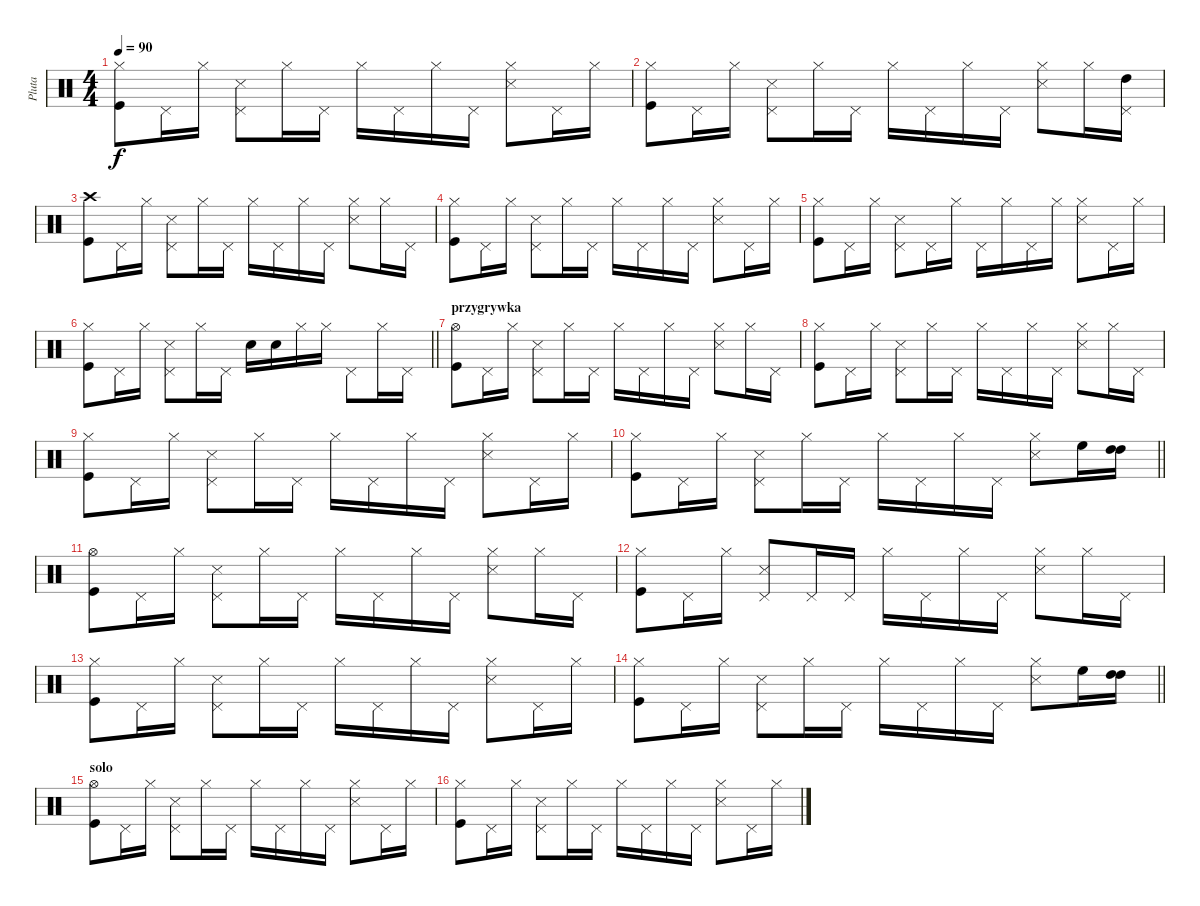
\track ("Pluta" "Pluta") {instrument percussion}
\staff {score}
\articulation defaults
\ts (4 4)
\tempo 90
\clef neutral
\ks c
("Hi-Hat (closed)" "Kick (hit)").8{dy f} "Pedal Hi-Hat (hit)".16 "Hi-Hat (closed)".16 ("Pedal Hi-Hat (hit)" "Snare (side stick) 3").8 "Hi-Hat (closed)".16 "Pedal Hi-Hat (hit)".16 "Hi-Hat (closed)".16 "Pedal Hi-Hat (hit)".16 "Hi-Hat (closed)".16 "Pedal Hi-Hat (hit)".16 ("Hi-Hat (closed)" "Snare (side stick) 3").8 "Pedal Hi-Hat (hit)".16 "Hi-Hat (closed)".16 |
("Hi-Hat (closed)" "Kick (hit)").8 "Pedal Hi-Hat (hit)".16 "Hi-Hat (closed)".16 ("Pedal Hi-Hat (hit)" "Snare (side stick) 3").8 "Hi-Hat (closed)".16 "Pedal Hi-Hat (hit)".16 "Hi-Hat (closed)".16 "Pedal Hi-Hat (hit)".16 "Hi-Hat (closed)".16 "Pedal Hi-Hat (hit)".16 ("Hi-Hat (closed)" "Snare (side stick) 3").8 "Hi-Hat (closed)".16 ("Pedal Hi-Hat (hit)" "High Tom (hit)").16 |
("Crash high (hit)" "Kick (hit)").8 "Pedal Hi-Hat (hit)".16 "Hi-Hat (closed)".16 ("Pedal Hi-Hat (hit)" "Snare (side stick) 3").8 "Hi-Hat (closed)".16 "Pedal Hi-Hat (hit)".16 "Hi-Hat (closed)".16 "Pedal Hi-Hat (hit)".16 "Hi-Hat (closed)".16 "Pedal Hi-Hat (hit)".16 ("Hi-Hat (closed)" "Snare (side stick) 3").8 "Hi-Hat (closed)".16 "Pedal Hi-Hat (hit)".16 |
("Hi-Hat (closed)" "Kick (hit)").8 "Pedal Hi-Hat (hit)".16 "Hi-Hat (closed)".16 ("Pedal Hi-Hat (hit)" "Snare (side stick) 3").8 "Hi-Hat (closed)".16 "Pedal Hi-Hat (hit)".16 "Hi-Hat (closed)".16 "Pedal Hi-Hat (hit)".16 "Hi-Hat (closed)".16 "Pedal Hi-Hat (hit)".16 ("Hi-Hat (closed)" "Snare (side stick) 3").8 "Pedal Hi-Hat (hit)".16 "Hi-Hat (closed)".16 |
("Hi-Hat (closed)" "Kick (hit)").8 "Pedal Hi-Hat (hit)".16 "Hi-Hat (closed)".16 ("Pedal Hi-Hat (hit)" "Snare (side stick) 3").8 "Pedal Hi-Hat (hit)".16 "Hi-Hat (closed)".16 "Pedal Hi-Hat (hit)".16 "Hi-Hat (closed)".16 "Pedal Hi-Hat (hit)".16 "Hi-Hat (closed)".16 ("Hi-Hat (closed)" "Snare (side stick) 3").8 "Pedal Hi-Hat (hit)".16 "Hi-Hat (closed)".16 |
\barLineRight lightlight
("Hi-Hat (closed)" "Kick (hit)").8 "Pedal Hi-Hat (hit)".16 "Hi-Hat (closed)".16 ("Pedal Hi-Hat (hit)" "Snare (side stick) 3").8 "Hi-Hat (closed)".16 "Pedal Hi-Hat (hit)".16 "Snare (hit) 2".16 "Snare (hit) 2".16 "Hi-Hat (closed)".16 "Hi-Hat (closed)".16 "Pedal Hi-Hat (hit)".8 "Hi-Hat (closed)".16 "Pedal Hi-Hat (hit)".16 |
\section ("" "przygrywka")
("Hi-Hat (open)" "Kick (hit)").8 "Pedal Hi-Hat (hit)".16 "Hi-Hat (closed)".16 ("Pedal Hi-Hat (hit)" "Snare (side stick) 3").8 "Hi-Hat (closed)".16 "Pedal Hi-Hat (hit)".16 "Hi-Hat (closed)".16 "Pedal Hi-Hat (hit)".16 "Hi-Hat (closed)".16 "Pedal Hi-Hat (hit)".16 ("Hi-Hat (closed)" "Snare (side stick) 3").8 "Hi-Hat (closed)".16 "Pedal Hi-Hat (hit)".16 |
("Hi-Hat (closed)" "Kick (hit)").8 "Pedal Hi-Hat (hit)".16 "Hi-Hat (closed)".16 ("Pedal Hi-Hat (hit)" "Snare (side stick) 3").8 "Hi-Hat (closed)".16 "Pedal Hi-Hat (hit)".16 "Hi-Hat (closed)".16 "Pedal Hi-Hat (hit)".16 "Hi-Hat (closed)".16 "Pedal Hi-Hat (hit)".16 ("Hi-Hat (closed)" "Snare (side stick) 3").8 "Hi-Hat (closed)".16 "Pedal Hi-Hat (hit)".16 |
("Hi-Hat (closed)" "Kick (hit)").8 "Pedal Hi-Hat (hit)".16 "Hi-Hat (closed)".16 ("Pedal Hi-Hat (hit)" "Snare (side stick) 3").8 "Hi-Hat (closed)".16 "Pedal Hi-Hat (hit)".16 "Hi-Hat (closed)".16 "Pedal Hi-Hat (hit)".16 "Hi-Hat (closed)".16 "Pedal Hi-Hat (hit)".16 ("Hi-Hat (closed)" "Snare (side stick) 3").8 "Pedal Hi-Hat (hit)".16 "Hi-Hat (closed)".16 |
\barLineRight lightlight
("Hi-Hat (closed)" "Kick (hit)").8 "Pedal Hi-Hat (hit)".16 "Hi-Hat (closed)".16 ("Pedal Hi-Hat (hit)" "Snare (side stick) 3").8 "Hi-Hat (closed)".16 "Pedal Hi-Hat (hit)".16 "Hi-Hat (closed)".16 "Pedal Hi-Hat (hit)".16 "Hi-Hat (closed)".16 "Pedal Hi-Hat (hit)".16 ("Hi-Hat (closed)" "Snare (side stick) 3").8 "High Floor Tom (hit)".16 ("High Tom (hit)" "High Tom (hit)").16 |
("Hi-Hat (open)" "Kick (hit)").8 "Pedal Hi-Hat (hit)".16 "Hi-Hat (closed)".16 ("Pedal Hi-Hat (hit)" "Snare (side stick) 3").8 "Hi-Hat (closed)".16 "Pedal Hi-Hat (hit)".16 "Hi-Hat (closed)".16 "Pedal Hi-Hat (hit)".16 "Hi-Hat (closed)".16 "Pedal Hi-Hat (hit)".16 ("Hi-Hat (closed)" "Snare (side stick) 3").8 "Hi-Hat (closed)".16 "Pedal Hi-Hat (hit)".16 |
("Hi-Hat (closed)" "Kick (hit)").8 "Pedal Hi-Hat (hit)".16 "Hi-Hat (closed)".16 ("Pedal Hi-Hat (hit)" "Snare (side stick) 3").8 "Pedal Hi-Hat (hit)".16 "Pedal Hi-Hat (hit)".16 "Hi-Hat (closed)".16 "Pedal Hi-Hat (hit)".16 "Hi-Hat (closed)".16 "Pedal Hi-Hat (hit)".16 ("Hi-Hat (closed)" "Snare (side stick) 3").8 "Hi-Hat (closed)".16 "Pedal Hi-Hat (hit)".16 |
("Hi-Hat (closed)" "Kick (hit)").8 "Pedal Hi-Hat (hit)".16 "Hi-Hat (closed)".16 ("Pedal Hi-Hat (hit)" "Snare (side stick) 3").8 "Hi-Hat (closed)".16 "Pedal Hi-Hat (hit)".16 "Hi-Hat (closed)".16 "Pedal Hi-Hat (hit)".16 "Hi-Hat (closed)".16 "Pedal Hi-Hat (hit)".16 ("Hi-Hat (closed)" "Snare (side stick) 3").8 "Pedal Hi-Hat (hit)".16 "Hi-Hat (closed)".16 |
\barLineRight lightlight
("Hi-Hat (closed)" "Kick (hit)").8 "Pedal Hi-Hat (hit)".16 "Hi-Hat (closed)".16 ("Pedal Hi-Hat (hit)" "Snare (side stick) 3").8 "Hi-Hat (closed)".16 "Pedal Hi-Hat (hit)".16 "Hi-Hat (closed)".16 "Pedal Hi-Hat (hit)".16 "Hi-Hat (closed)".16 "Pedal Hi-Hat (hit)".16 ("Hi-Hat (closed)" "Snare (side stick) 3").8 "High Floor Tom (hit)".16 ("High Tom (hit)" "High Tom (hit)").16 |
\section ("" "solo")
("Hi-Hat (open)" "Kick (hit)").8 "Pedal Hi-Hat (hit)".16 "Hi-Hat (closed)".16 ("Pedal Hi-Hat (hit)" "Snare (side stick) 3").8 "Hi-Hat (closed)".16 "Pedal Hi-Hat (hit)".16 "Hi-Hat (closed)".16 "Pedal Hi-Hat (hit)".16 "Hi-Hat (closed)".16 "Pedal Hi-Hat (hit)".16 ("Hi-Hat (closed)" "Snare (side stick) 3").8 "Pedal Hi-Hat (hit)".16 "Hi-Hat (closed)".16 |
("Hi-Hat (closed)" "Kick (hit)").8 "Pedal Hi-Hat (hit)".16 "Hi-Hat (closed)".16 ("Pedal Hi-Hat (hit)" "Snare (side stick) 3").8 "Hi-Hat (closed)".16 "Pedal Hi-Hat (hit)".16 "Hi-Hat (closed)".16 "Pedal Hi-Hat (hit)".16 "Hi-Hat (closed)".16 "Pedal Hi-Hat (hit)".16 ("Hi-Hat (closed)" "Snare (side stick) 3").8 "Pedal Hi-Hat (hit)".16 "Hi-Hat (closed)".16
